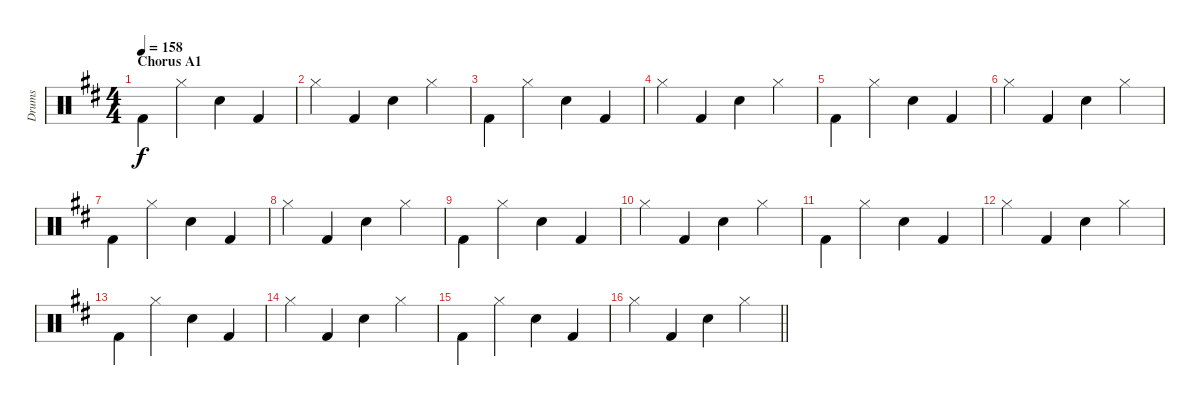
\track ("Drums" "Drums") {instrument percussion}
\staff {score}
\articulation defaults
\ts (4 4)
\section ("" "Chorus A1")
\tempo 158
\clef neutral
\ks d "Kick (hit) 2".4{dy f beam merge} "Hi-Hat (closed)".4 "Snare (hit) 2".4 "Kick (hit) 2".4
|
"Hi-Hat (closed)".4 "Kick (hit) 2".4 "Snare (hit) 2".4 "Hi-Hat (closed)".4 |
"Kick (hit) 2".4{beam merge} "Hi-Hat (closed)".4 "Snare (hit) 2".4 "Kick (hit) 2".4 |
"Hi-Hat (closed)".4 "Kick (hit) 2".4 "Snare (hit) 2".4 "Hi-Hat (closed)".4 |
"Kick (hit) 2".4{beam merge} "Hi-Hat (closed)".4 "Snare (hit) 2".4 "Kick (hit) 2".4 |
"Hi-Hat (closed)".4 "Kick (hit) 2".4 "Snare (hit) 2".4 "Hi-Hat (closed)".4 |
"Kick (hit) 2".4{beam merge} "Hi-Hat (closed)".4 "Snare (hit) 2".4 "Kick (hit) 2".4 |
"Hi-Hat (closed)".4 "Kick (hit) 2".4 "Snare (hit) 2".4 "Hi-Hat (closed)".4 |
"Kick (hit) 2".4{beam merge} "Hi-Hat (closed)".4 "Snare (hit) 2".4 "Kick (hit) 2".4 |
"Hi-Hat (closed)".4 "Kick (hit) 2".4 "Snare (hit) 2".4 "Hi-Hat (closed)".4 |
"Kick (hit) 2".4{beam merge} "Hi-Hat (closed)".4 "Snare (hit) 2".4 "Kick (hit) 2".4 |
"Hi-Hat (closed)".4 "Kick (hit) 2".4 "Snare (hit) 2".4 "Hi-Hat (closed)".4 |
"Kick (hit) 2".4{beam merge} "Hi-Hat (closed)".4 "Snare (hit) 2".4 "Kick (hit) 2".4 |
"Hi-Hat (closed)".4 "Kick (hit) 2".4 "Snare (hit) 2".4 "Hi-Hat (closed)".4 |
"Kick (hit) 2".4{beam merge} "Hi-Hat (closed)".4 "Snare (hit) 2".4 "Kick (hit) 2".4 |
\barLineRight lightlight "Hi-Hat (closed)".4 "Kick (hit) 2".4 "Snare (hit) 2".4 "Hi-Hat (closed)".4
